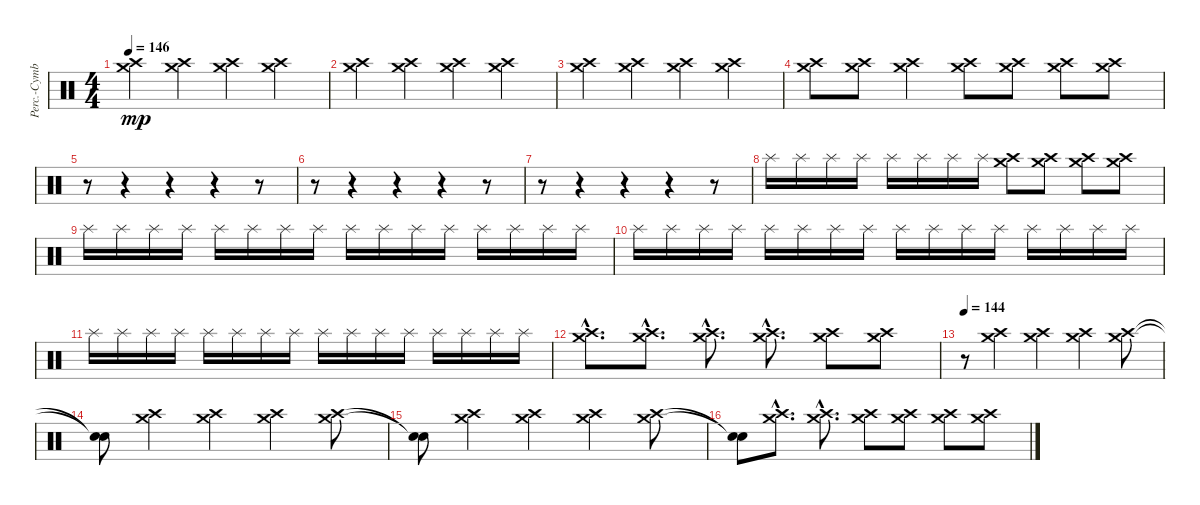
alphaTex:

\track ("Perc.-Cymbals" "Perc.-Cymb") {instrument percussion}
\staff {score}
\articulation defaults
\ts (4 4)
\tempo 146
\clef neutral
\ks c
("Crash high (hit)" "Crash medium (hit)").4{dy mp} ("Crash high (hit)" "Crash medium (hit)").4 ("Crash high (hit)" "Crash medium (hit)").4 ("Crash high (hit)" "Crash medium (hit)").4 |
("Crash high (hit)" "Crash medium (hit)").4 ("Crash high (hit)" "Crash medium (hit)").4 ("Crash high (hit)" "Crash medium (hit)").4 ("Crash high (hit)" "Crash medium (hit)").4 |
("Crash high (hit)" "Crash medium (hit)").4 ("Crash high (hit)" "Crash medium (hit)").4 ("Crash high (hit)" "Crash medium (hit)").4 ("Crash high (hit)" "Crash medium (hit)").4 |
("Crash high (hit)" "Crash medium (hit)").8 ("Crash high (hit)" "Crash medium (hit)").8 ("Crash high (hit)" "Crash medium (hit)").4 ("Crash high (hit)" "Crash medium (hit)").8 ("Crash high (hit)" "Crash medium (hit)").8 ("Crash high (hit)" "Crash medium (hit)").8 ("Crash high (hit)" "Crash medium (hit)").8 |
r.8 r.4 r.4 r.4 r.8 |
r.8 r.4 r.4 r.4 r.8 |
r.8 r.4 r.4 r.4 r.8 |
"Splash (hit)".16 "Splash (hit)".16 "Splash (hit)".16 "Splash (hit)".16 "Splash (hit)".16 "Splash (hit)".16 "Splash (hit)".16 "Splash (hit)".16 ("Crash high (hit)" "Crash medium (hit)").8 ("Crash high (hit)" "Crash medium (hit)").8 ("Crash high (hit)" "Crash medium (hit)").8 ("Crash high (hit)" "Crash medium (hit)").8 |
"Splash (hit)".16 "Splash (hit)".16 "Splash (hit)".16 "Splash (hit)".16 "Splash (hit)".16 "Splash (hit)".16 "Splash (hit)".16 "Splash (hit)".16 "Splash (hit)".16 "Splash (hit)".16 "Splash (hit)".16 "Splash (hit)".16 "Splash (hit)".16 "Splash (hit)".16 "Splash (hit)".16 "Splash (hit)".16 |
"Splash (hit)".16 "Splash (hit)".16 "Splash (hit)".16 "Splash (hit)".16 "Splash (hit)".16 "Splash (hit)".16 "Splash (hit)".16 "Splash (hit)".16 "Splash (hit)".16 "Splash (hit)".16 "Splash (hit)".16 "Splash (hit)".16 "Splash (hit)".16 "Splash (hit)".16 "Splash (hit)".16 "Splash (hit)".16 |
"Splash (hit)".16 "Splash (hit)".16 "Splash (hit)".16 "Splash (hit)".16 "Splash (hit)".16 "Splash (hit)".16 "Splash (hit)".16 "Splash (hit)".16 "Splash (hit)".16 "Splash (hit)".16 "Splash (hit)".16 "Splash (hit)".16 "Splash (hit)".16 "Splash (hit)".16 "Splash (hit)".16 "Splash (hit)".16 |
("Crash high (hit)"{hac} "Crash medium (hit)"{hac}).8{d} ("Crash high (hit)"{hac} "Crash medium (hit)"{hac}).8{d} ("Crash high (hit)"{hac} "Crash medium (hit)"{hac}).8{d} ("Crash high (hit)"{hac} "Crash medium (hit)"{hac}).8{d} ("Crash high (hit)" "Crash medium (hit)").8 ("Crash high (hit)" "Crash medium (hit)").8 |
\tempo 144
r.8 ("Crash high (hit)" "Crash medium (hit)").4 ("Crash high (hit)" "Crash medium (hit)").4 ("Crash high (hit)" "Crash medium (hit)").4 ("Crash high (hit)" "Crash medium (hit)").8 |
("Snare (hit)"{t} "Snare (hit)"{t}).8 ("Crash high (hit)" "Crash medium (hit)").4 ("Crash high (hit)" "Crash medium (hit)").4 ("Crash high (hit)" "Crash medium (hit)").4 ("Crash high (hit)" "Crash medium (hit)").8 |
("Snare (hit)"{t} "Snare (hit)"{t}).8 ("Crash high (hit)" "Crash medium (hit)").4 ("Crash high (hit)" "Crash medium (hit)").4 ("Crash high (hit)" "Crash medium (hit)").4 ("Crash high (hit)" "Crash medium (hit)").8 |
("Snare (hit)"{t} "Snare (hit)"{t}).8 ("Crash high (hit)"{hac} "Crash medium (hit)"{hac}).8{d} ("Crash high (hit)"{hac} "Crash medium (hit)"{hac}).8{d} ("Crash high (hit)" "Crash medium (hit)").8 ("Crash high (hit)" "Crash medium (hit)").8 ("Crash high (hit)" "Crash medium (hit)").8 ("Crash high (hit)" "Crash medium (hit)").8
